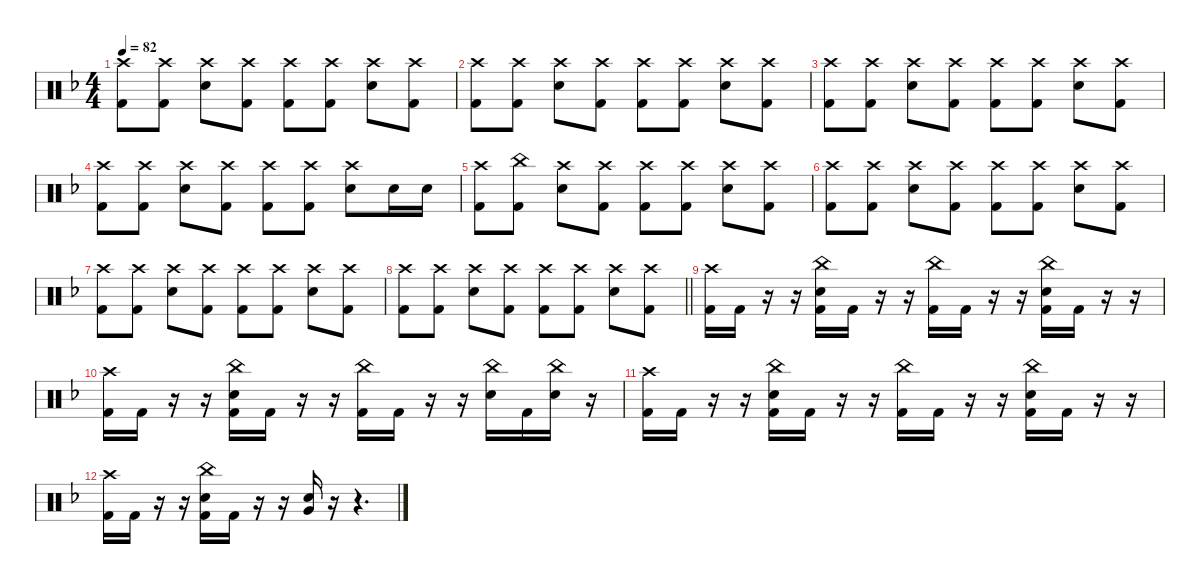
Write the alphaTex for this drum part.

\defaultSystemsLayout 4
\hideDynamics
\bracketExtendMode nobrackets
\singleTrackTrackNamePolicy hidden
\multiTrackTrackNamePolicy hidden
\firstSystemTrackNameMode fullname
\firstSystemTrackNameOrientation horizontal
\otherSystemsTrackNameOrientation horizontal
\track ("Drums" "drm.") {defaultSystemsLayout 4 instrument percussion}
\staff {score}
\articulation defaults
\ts (4 4)
\tempo 82
\clef neutral
\ks dminor
("Crash high (hit)"{acc forcenatural} "Kick (hit) 2"{acc forcenatural}).8{dy f beam Down} ("Crash high (hit)"{acc forcenatural} "Kick (hit) 2"{acc forcenatural}).8{beam Down} ("Crash high (hit)"{acc forcenatural} "Snare (hit) 2"{acc forcenatural}).8{beam Down} ("Crash high (hit)"{acc forcenatural} "Kick (hit) 2"{acc forcenatural}).8{beam Down} ("Crash high (hit)"{acc forcenatural} "Kick (hit) 2"{acc forcenatural}).8{beam Down} ("Crash high (hit)"{acc forcenatural} "Kick (hit) 2"{acc forcenatural}).8{beam Down} ("Crash high (hit)"{acc forcenatural} "Snare (hit) 2"{acc forcenatural}).8{beam Down} ("Crash high (hit)"{acc forcenatural} "Kick (hit) 2"{acc forcenatural}).8{beam Down} |
("Crash high (hit)"{acc forcenatural} "Kick (hit) 2"{acc forcenatural}).8{beam Down} ("Crash high (hit)"{acc forcenatural} "Kick (hit) 2"{acc forcenatural}).8{beam Down} ("Crash high (hit)"{acc forcenatural} "Snare (hit) 2"{acc forcenatural}).8{beam Down} ("Crash high (hit)"{acc forcenatural} "Kick (hit) 2"{acc forcenatural}).8{beam Down} ("Crash high (hit)"{acc forcenatural} "Kick (hit) 2"{acc forcenatural}).8{beam Down} ("Crash high (hit)"{acc forcenatural} "Kick (hit) 2"{acc forcenatural}).8{beam Down} ("Crash high (hit)"{acc forcenatural} "Snare (hit) 2"{acc forcenatural}).8{beam Down} ("Crash high (hit)"{acc forcenatural} "Kick (hit) 2"{acc forcenatural}).8{beam Down} |
("Crash high (hit)"{acc forcenatural} "Kick (hit) 2"{acc forcenatural}).8{beam Down} ("Crash high (hit)"{acc forcenatural} "Kick (hit) 2"{acc forcenatural}).8{beam Down} ("Crash high (hit)"{acc forcenatural} "Snare (hit) 2"{acc forcenatural}).8{beam Down} ("Crash high (hit)"{acc forcenatural} "Kick (hit) 2"{acc forcenatural}).8{beam Down} ("Crash high (hit)"{acc forcenatural} "Kick (hit) 2"{acc forcenatural}).8{beam Down} ("Crash high (hit)"{acc forcenatural} "Kick (hit) 2"{acc forcenatural}).8{beam Down} ("Crash high (hit)"{acc forcenatural} "Snare (hit) 2"{acc forcenatural}).8{beam Down} ("Crash high (hit)"{acc forcenatural} "Kick (hit) 2"{acc forcenatural}).8{beam Down} |
("Crash high (hit)"{acc forcenatural} "Kick (hit) 2"{acc forcenatural}).8{beam Down} ("Crash high (hit)"{acc forcenatural} "Kick (hit) 2"{acc forcenatural}).8{beam Down} ("Crash high (hit)"{acc forcenatural} "Snare (hit) 2"{acc forcenatural}).8{beam Down} ("Crash high (hit)"{acc forcenatural} "Kick (hit) 2"{acc forcenatural}).8{beam Down} ("Crash high (hit)"{acc forcenatural} "Kick (hit) 2"{acc forcenatural}).8{beam Down} ("Crash high (hit)"{acc forcenatural} "Kick (hit) 2"{acc forcenatural}).8{beam Down} ("Crash high (hit)"{acc forcenatural} "Snare (hit) 2"{acc forcenatural}).8{beam Down} "Snare (hit) 2"{acc forcenatural}.16{beam Down} "Snare (hit) 2"{acc forcenatural}.16{beam Down} |
("Crash high (hit)"{acc forcenatural} "Kick (hit) 2"{acc forcenatural}).8{beam Down} ("China (hit)"{acc forcenatural} "Kick (hit) 2"{acc forcenatural}).8{beam Down} ("Crash high (hit)"{acc forcenatural} "Snare (hit) 2"{acc forcenatural}).8{beam Down} ("Crash high (hit)"{acc forcenatural} "Kick (hit) 2"{acc forcenatural}).8{beam Down} ("Crash high (hit)"{acc forcenatural} "Kick (hit) 2"{acc forcenatural}).8{beam Down} ("Crash high (hit)"{acc forcenatural} "Kick (hit) 2"{acc forcenatural}).8{beam Down} ("Crash high (hit)"{acc forcenatural} "Snare (hit) 2"{acc forcenatural}).8{beam Down} ("Crash high (hit)"{acc forcenatural} "Kick (hit) 2"{acc forcenatural}).8{beam Down} |
("Crash high (hit)"{acc forcenatural} "Kick (hit) 2"{acc forcenatural}).8{beam Down} ("Crash high (hit)"{acc forcenatural} "Kick (hit) 2"{acc forcenatural}).8{beam Down} ("Crash high (hit)"{acc forcenatural} "Snare (hit) 2"{acc forcenatural}).8{beam Down} ("Crash high (hit)"{acc forcenatural} "Kick (hit) 2"{acc forcenatural}).8{beam Down} ("Crash high (hit)"{acc forcenatural} "Kick (hit) 2"{acc forcenatural}).8{beam Down} ("Crash high (hit)"{acc forcenatural} "Kick (hit) 2"{acc forcenatural}).8{beam Down} ("Crash high (hit)"{acc forcenatural} "Snare (hit) 2"{acc forcenatural}).8{beam Down} ("Crash high (hit)"{acc forcenatural} "Kick (hit) 2"{acc forcenatural}).8{beam Down} |
("Crash high (hit)"{acc forcenatural} "Kick (hit) 2"{acc forcenatural}).8{beam Down} ("Crash high (hit)"{acc forcenatural} "Kick (hit) 2"{acc forcenatural}).8{beam Down} ("Crash high (hit)"{acc forcenatural} "Snare (hit) 2"{acc forcenatural}).8{beam Down} ("Crash high (hit)"{acc forcenatural} "Kick (hit) 2"{acc forcenatural}).8{beam Down} ("Crash high (hit)"{acc forcenatural} "Kick (hit) 2"{acc forcenatural}).8{beam Down} ("Crash high (hit)"{acc forcenatural} "Kick (hit) 2"{acc forcenatural}).8{beam Down} ("Crash high (hit)"{acc forcenatural} "Snare (hit) 2"{acc forcenatural}).8{beam Down} ("Crash high (hit)"{acc forcenatural} "Kick (hit) 2"{acc forcenatural}).8{beam Down} |
\barLineRight lightlight
("Crash high (hit)"{acc forcenatural} "Kick (hit) 2"{acc forcenatural}).8{beam Down} ("Crash high (hit)"{acc forcenatural} "Kick (hit) 2"{acc forcenatural}).8{beam Down} ("Crash high (hit)"{acc forcenatural} "Snare (hit) 2"{acc forcenatural}).8{beam Down} ("Crash high (hit)"{acc forcenatural} "Kick (hit) 2"{acc forcenatural}).8{beam Down} ("Crash high (hit)"{acc forcenatural} "Kick (hit) 2"{acc forcenatural}).8{beam Down} ("Crash high (hit)"{acc forcenatural} "Kick (hit) 2"{acc forcenatural}).8{beam Down} ("Crash high (hit)"{acc forcenatural} "Snare (hit) 2"{acc forcenatural}).8{beam Down} ("Crash high (hit)"{acc forcenatural} "Kick (hit) 2"{acc forcenatural}).8{beam Down} |
("Crash high (hit)"{acc forcenatural} "Kick (hit) 2"{acc forcenatural}).16{beam Down} "Kick (hit) 2"{acc forcenatural}.16{beam Down} r.16{beam Down} r.16{beam Down} ("China (hit)"{acc forcenatural} "Snare (hit) 2"{acc forcenatural} "Kick (hit) 2"{acc forcenatural}).16{dy mf beam Down} "Kick (hit) 2"{acc forcenatural}.16{dy f beam Down} r.16{beam Down} r.16{beam Down} ("China (hit)"{acc forcenatural} "Kick (hit) 2"{acc forcenatural}).16{dy mf beam Down} "Kick (hit) 2"{acc forcenatural}.16{dy f beam Down} r.16{beam Down} r.16{beam Down} ("China (hit)"{acc forcenatural} "Snare (hit) 2"{acc forcenatural} "Kick (hit) 2"{acc forcenatural}).16{dy mf beam Down} "Kick (hit) 2"{acc forcenatural}.16{dy f beam Down} r.16{beam Down} r.16{beam Down} |
("Crash high (hit)"{acc forcenatural} "Kick (hit) 2"{acc forcenatural}).16{beam Down} "Kick (hit) 2"{acc forcenatural}.16{beam Down} r.16{beam Down} r.16{beam Down} ("China (hit)"{acc forcenatural} "Snare (hit) 2"{acc forcenatural} "Kick (hit) 2"{acc forcenatural}).16{dy mf beam Down} "Kick (hit) 2"{acc forcenatural}.16{dy f beam Down} r.16{beam Down} r.16{beam Down} ("China (hit)"{acc forcenatural} "Kick (hit) 2"{acc forcenatural}).16{dy mf beam Down} "Kick (hit) 2"{acc forcenatural}.16{dy f beam Down} r.16{beam Down} r.16{beam Down} ("China (hit)"{acc forcenatural} "Snare (hit) 2"{acc forcenatural}).16{dy mf beam Down} "Kick (hit) 2"{acc forcenatural}.16{dy f beam Down} ("China (hit)"{acc forcenatural} "Snare (hit) 2"{acc forcenatural}).16{dy mf beam Down} r.16{beam Down} |
("Crash high (hit)"{acc forcenatural} "Kick (hit) 2"{acc forcenatural}).16{dy f beam Down} "Kick (hit) 2"{acc forcenatural}.16{beam Down} r.16{beam Down} r.16{beam Down} ("China (hit)"{acc forcenatural} "Snare (hit) 2"{acc forcenatural} "Kick (hit) 2"{acc forcenatural}).16{dy mf beam Down} "Kick (hit) 2"{acc forcenatural}.16{dy f beam Down} r.16{beam Down} r.16{beam Down} ("China (hit)"{acc forcenatural} "Kick (hit) 2"{acc forcenatural}).16{dy mf beam Down} "Kick (hit) 2"{acc forcenatural}.16{dy f beam Down} r.16{beam Down} r.16{beam Down} ("China (hit)"{acc forcenatural} "Snare (hit) 2"{acc forcenatural} "Kick (hit) 2"{acc forcenatural}).16{dy mf beam Down} "Kick (hit) 2"{acc forcenatural}.16{dy f beam Down} r.16{beam Down} r.16{beam Down} |
("Crash high (hit)"{acc forcenatural} "Kick (hit) 2"{acc forcenatural}).16{beam Down} "Kick (hit) 2"{acc forcenatural}.16{beam Down} r.16{beam Down} r.16{beam Down} ("China (hit)"{acc forcenatural} "Snare (hit) 2"{acc forcenatural} "Kick (hit) 2"{acc forcenatural}).16{dy mf beam Down} "Kick (hit) 2"{acc forcenatural}.16{dy f beam Down} r.16{beam Down} r.16{beam Down} ("Snare (hit) 2"{acc forcenatural} "Very Low Tom (hit)"{acc forcenatural}).16{beam Up} r.16{beam Up} r.4{d beam Up}
